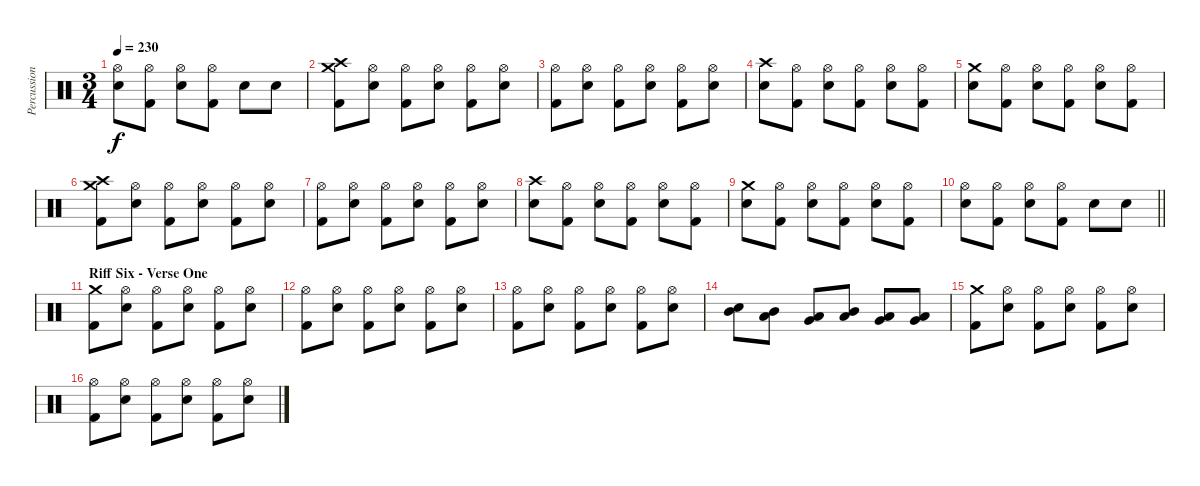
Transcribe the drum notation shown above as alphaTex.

\track ("Percussion" "Percussion") {instrument percussion}
\staff {score}
\articulation defaults
\ts (3 4)
\tempo 230
\clef neutral
\ks c
("Hi-Hat (open)" "Electric Snare (hit)").8{dy f} ("Hi-Hat (open)" "Kick (hit) 2").8 ("Hi-Hat (open)" "Electric Snare (hit)").8 ("Hi-Hat (open)" "Kick (hit) 2").8 "Electric Snare (hit)".8 "Electric Snare (hit)".8 |
("Crash medium (hit)" "Crash high (hit)" "Kick (hit) 2").8 ("Hi-Hat (open)" "Electric Snare (hit)").8 ("Hi-Hat (open)" "Kick (hit) 2").8 ("Hi-Hat (open)" "Electric Snare (hit)").8 ("Hi-Hat (open)" "Kick (hit) 2").8 ("Hi-Hat (open)" "Electric Snare (hit)").8 |
("Hi-Hat (open)" "Kick (hit) 2").8 ("Hi-Hat (open)" "Electric Snare (hit)").8 ("Hi-Hat (open)" "Kick (hit) 2").8 ("Hi-Hat (open)" "Electric Snare (hit)").8 ("Hi-Hat (open)" "Kick (hit) 2").8 ("Hi-Hat (open)" "Electric Snare (hit)").8 |
("Crash high (hit)" "Electric Snare (hit)").8 ("Hi-Hat (open)" "Kick (hit) 2").8 ("Hi-Hat (open)" "Electric Snare (hit)").8 ("Hi-Hat (open)" "Kick (hit) 2").8 ("Hi-Hat (open)" "Electric Snare (hit)").8 ("Hi-Hat (open)" "Kick (hit) 2").8 |
("Crash medium (hit)" "Electric Snare (hit)").8 ("Hi-Hat (open)" "Kick (hit) 2").8 ("Hi-Hat (open)" "Electric Snare (hit)").8 ("Hi-Hat (open)" "Kick (hit) 2").8 ("Hi-Hat (open)" "Electric Snare (hit)").8 ("Hi-Hat (open)" "Kick (hit) 2").8 |
("Crash medium (hit)" "Crash high (hit)" "Kick (hit) 2").8 ("Hi-Hat (open)" "Electric Snare (hit)").8 ("Hi-Hat (open)" "Kick (hit) 2").8 ("Hi-Hat (open)" "Electric Snare (hit)").8 ("Hi-Hat (open)" "Kick (hit) 2").8 ("Hi-Hat (open)" "Electric Snare (hit)").8 |
("Hi-Hat (open)" "Kick (hit) 2").8 ("Hi-Hat (open)" "Electric Snare (hit)").8 ("Hi-Hat (open)" "Kick (hit) 2").8 ("Hi-Hat (open)" "Electric Snare (hit)").8 ("Hi-Hat (open)" "Kick (hit) 2").8 ("Hi-Hat (open)" "Electric Snare (hit)").8 |
("Crash high (hit)" "Electric Snare (hit)").8 ("Hi-Hat (open)" "Kick (hit) 2").8 ("Hi-Hat (open)" "Electric Snare (hit)").8 ("Hi-Hat (open)" "Kick (hit) 2").8 ("Hi-Hat (open)" "Electric Snare (hit)").8 ("Hi-Hat (open)" "Kick (hit) 2").8 |
("Crash medium (hit)" "Electric Snare (hit)").8 ("Hi-Hat (open)" "Kick (hit) 2").8 ("Hi-Hat (open)" "Electric Snare (hit)").8 ("Hi-Hat (open)" "Kick (hit) 2").8 ("Hi-Hat (open)" "Electric Snare (hit)").8 ("Hi-Hat (open)" "Kick (hit) 2").8 |
\barLineRight lightlight
("Hi-Hat (open)" "Electric Snare (hit)").8 ("Hi-Hat (open)" "Kick (hit) 2").8 ("Hi-Hat (open)" "Electric Snare (hit)").8 ("Hi-Hat (open)" "Kick (hit) 2").8 "Electric Snare (hit)".8 "Electric Snare (hit)".8 |
\section ("" "Riff Six - Verse One")
("Crash medium (hit)" "Kick (hit) 2").8 ("Hi-Hat (open)" "Electric Snare (hit)").8 ("Hi-Hat (open)" "Kick (hit) 2").8 ("Hi-Hat (open)" "Electric Snare (hit)").8 ("Hi-Hat (open)" "Kick (hit) 2").8 ("Hi-Hat (open)" "Electric Snare (hit)").8 |
("Hi-Hat (open)" "Kick (hit) 2").8 ("Hi-Hat (open)" "Electric Snare (hit)").8 ("Hi-Hat (open)" "Kick (hit) 2").8 ("Hi-Hat (open)" "Electric Snare (hit)").8 ("Hi-Hat (open)" "Kick (hit) 2").8 ("Hi-Hat (open)" "Electric Snare (hit)").8 |
("Hi-Hat (open)" "Kick (hit) 2").8 ("Hi-Hat (open)" "Electric Snare (hit)").8 ("Hi-Hat (open)" "Kick (hit) 2").8 ("Hi-Hat (open)" "Electric Snare (hit)").8 ("Hi-Hat (open)" "Kick (hit) 2").8 ("Hi-Hat (open)" "Electric Snare (hit)").8 |
("Mid Tom (hit)" "Electric Snare (hit)").8 ("Low Tom (hit)" "Mid Tom (hit)").8 ("Very Low Tom (hit)" "Low Tom (hit)").8 ("Low Tom (hit)" "Mid Tom (hit)").8 ("Very Low Tom (hit)" "Low Tom (hit)").8 ("Very Low Tom (hit)" "Low Tom (hit)").8 |
("Crash medium (hit)" "Kick (hit) 2").8 ("Hi-Hat (open)" "Electric Snare (hit)").8 ("Hi-Hat (open)" "Kick (hit) 2").8 ("Hi-Hat (open)" "Electric Snare (hit)").8 ("Hi-Hat (open)" "Kick (hit) 2").8 ("Hi-Hat (open)" "Electric Snare (hit)").8 |
("Hi-Hat (open)" "Kick (hit) 2").8 ("Hi-Hat (open)" "Electric Snare (hit)").8 ("Hi-Hat (open)" "Kick (hit) 2").8 ("Hi-Hat (open)" "Electric Snare (hit)").8 ("Hi-Hat (open)" "Kick (hit) 2").8 ("Hi-Hat (open)" "Electric Snare (hit)").8
